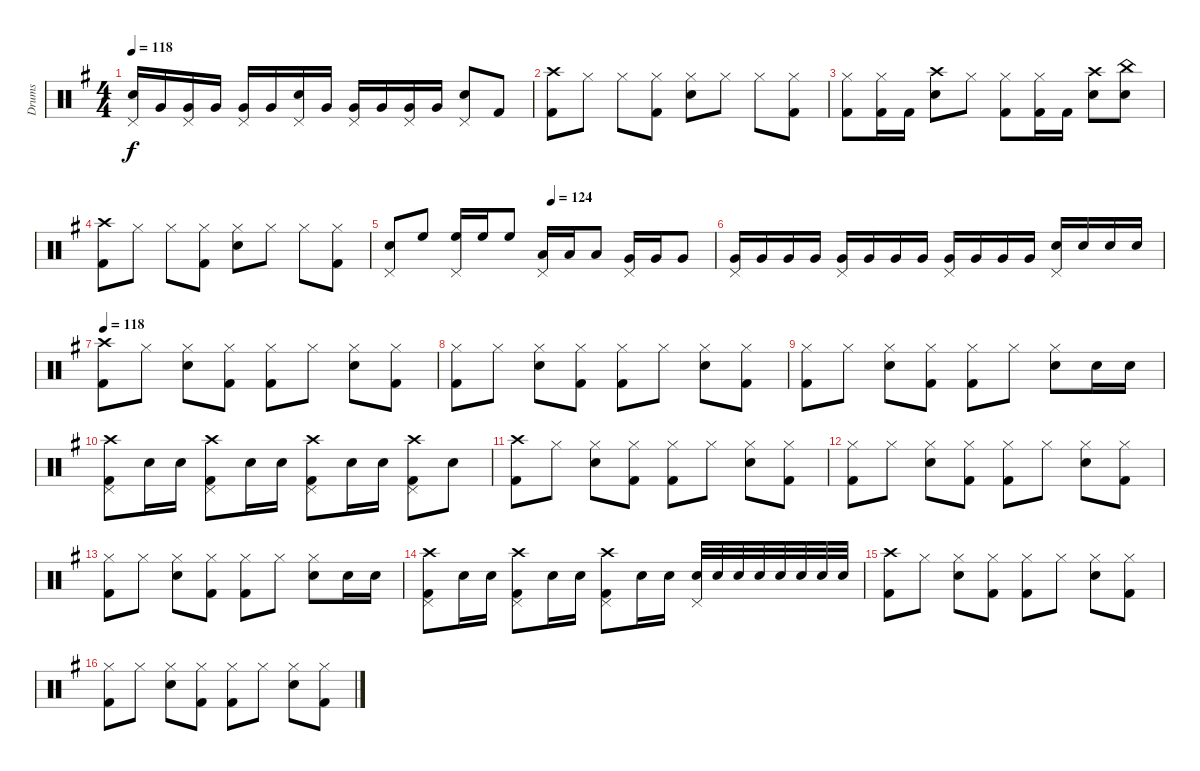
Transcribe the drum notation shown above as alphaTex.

\track ("Drums" "Drums") {instrument percussion}
\staff {score}
\articulation defaults
\ts (4 4)
\tempo 118
\clef neutral
\ks eminor
("Pedal Hi-Hat (hit)" "Electric Snare (hit)").16{dy f} "Very Low Tom (hit)".16 ("Pedal Hi-Hat (hit)" "Very Low Tom (hit)").16 "Very Low Tom (hit)".16 ("Pedal Hi-Hat (hit)" "Very Low Tom (hit)").16 "Very Low Tom (hit)".16 ("Pedal Hi-Hat (hit)" "Electric Snare (hit)").16 "Very Low Tom (hit)".16 ("Pedal Hi-Hat (hit)" "Very Low Tom (hit)").16 "Very Low Tom (hit)".16 ("Pedal Hi-Hat (hit)" "Very Low Tom (hit)").16 "Very Low Tom (hit)".16 ("Pedal Hi-Hat (hit)" "Electric Snare (hit)").8 "Kick (hit) 2".8 |
("Crash high (hit)" "Kick (hit) 2").8 "Hi-Hat (closed)".8 "Hi-Hat (closed)".8 ("Hi-Hat (closed)" "Kick (hit) 2").8 ("Hi-Hat (closed)" "Electric Snare (hit)").8 "Hi-Hat (closed)".8 "Hi-Hat (closed)".8 ("Hi-Hat (closed)" "Kick (hit) 2").8 |
("Hi-Hat (closed)" "Kick (hit) 2").8 ("Hi-Hat (closed)" "Kick (hit) 2").16 "Kick (hit) 2".16 ("Crash high (hit)" "Electric Snare (hit)").8 "Hi-Hat (closed)".8 ("Hi-Hat (closed)" "Kick (hit) 2").8 ("Hi-Hat (closed)" "Kick (hit) 2").16 "Kick (hit) 2".16 ("Crash high (hit)" "Electric Snare (hit)").8 ("China (hit)" "Electric Snare (hit)").8 |
("Crash high (hit)" "Kick (hit) 2").8 "Hi-Hat (closed)".8 "Hi-Hat (closed)".8 ("Hi-Hat (closed)" "Kick (hit) 2").8 ("Hi-Hat (closed)" "Electric Snare (hit)").8 "Hi-Hat (closed)".8 "Hi-Hat (closed)".8 ("Hi-Hat (closed)" "Kick (hit) 2").8 |
\tempo (124 0.5)
("Pedal Hi-Hat (hit)" "Electric Snare (hit)").8 "High Floor Tom (hit)".8 ("Pedal Hi-Hat (hit)" "High Floor Tom (hit)").16 "High Floor Tom (hit)".16 "High Floor Tom (hit)".8 ("Pedal Hi-Hat (hit)" "Low Tom (hit)").16 "Low Tom (hit)".16 "Low Tom (hit)".8 ("Pedal Hi-Hat (hit)" "Very Low Tom (hit)").16 "Very Low Tom (hit)".16 "Very Low Tom (hit)".8 |
("Pedal Hi-Hat (hit)" "Very Low Tom (hit)").16 "Very Low Tom (hit)".16 "Very Low Tom (hit)".16 "Very Low Tom (hit)".16 ("Pedal Hi-Hat (hit)" "Very Low Tom (hit)").16 "Very Low Tom (hit)".16 "Very Low Tom (hit)".16 "Very Low Tom (hit)".16 ("Pedal Hi-Hat (hit)" "Very Low Tom (hit)").16 "Very Low Tom (hit)".16 "Very Low Tom (hit)".16 "Very Low Tom (hit)".16 ("Pedal Hi-Hat (hit)" "Electric Snare (hit)").16 "Electric Snare (hit)".16 "Electric Snare (hit)".16 "Electric Snare (hit)".16 |
\tempo 118
("Crash high (hit)" "Kick (hit) 2").8 "Hi-Hat (closed)".8 ("Hi-Hat (closed)" "Electric Snare (hit)").8 ("Hi-Hat (closed)" "Kick (hit) 2").8 ("Hi-Hat (closed)" "Kick (hit) 2").8 "Hi-Hat (closed)".8 ("Hi-Hat (closed)" "Electric Snare (hit)").8 ("Hi-Hat (closed)" "Kick (hit) 2").8 |
("Hi-Hat (closed)" "Kick (hit) 2").8 "Hi-Hat (closed)".8 ("Hi-Hat (closed)" "Electric Snare (hit)").8 ("Hi-Hat (closed)" "Kick (hit) 2").8 ("Hi-Hat (closed)" "Kick (hit) 2").8 "Hi-Hat (closed)".8 ("Hi-Hat (closed)" "Electric Snare (hit)").8 ("Hi-Hat (closed)" "Kick (hit) 2").8 |
("Hi-Hat (closed)" "Kick (hit) 2").8 "Hi-Hat (closed)".8 ("Hi-Hat (closed)" "Electric Snare (hit)").8 ("Hi-Hat (closed)" "Kick (hit) 2").8 ("Hi-Hat (closed)" "Kick (hit) 2").8 "Hi-Hat (closed)".8 ("Hi-Hat (closed)" "Electric Snare (hit)").8 "Electric Snare (hit)".16 "Electric Snare (hit)".16 |
("Crash high (hit)" "Pedal Hi-Hat (hit)" "Kick (hit) 2").8 "Electric Snare (hit)".16 "Electric Snare (hit)".16 ("Crash high (hit)" "Pedal Hi-Hat (hit)" "Kick (hit) 2").8 "Electric Snare (hit)".16 "Electric Snare (hit)".16 ("Crash high (hit)" "Pedal Hi-Hat (hit)" "Kick (hit) 2").8 "Electric Snare (hit)".16 "Electric Snare (hit)".16 ("Crash high (hit)" "Pedal Hi-Hat (hit)" "Kick (hit) 2").8 "Electric Snare (hit)".8 |
("Crash high (hit)" "Kick (hit) 2").8 "Hi-Hat (closed)".8 ("Hi-Hat (closed)" "Electric Snare (hit)").8 ("Hi-Hat (closed)" "Kick (hit) 2").8 ("Hi-Hat (closed)" "Kick (hit) 2").8 "Hi-Hat (closed)".8 ("Hi-Hat (closed)" "Electric Snare (hit)").8 ("Hi-Hat (closed)" "Kick (hit) 2").8 |
("Hi-Hat (closed)" "Kick (hit) 2").8 "Hi-Hat (closed)".8 ("Hi-Hat (closed)" "Electric Snare (hit)").8 ("Hi-Hat (closed)" "Kick (hit) 2").8 ("Hi-Hat (closed)" "Kick (hit) 2").8 "Hi-Hat (closed)".8 ("Hi-Hat (closed)" "Electric Snare (hit)").8 ("Hi-Hat (closed)" "Kick (hit) 2").8 |
("Hi-Hat (closed)" "Kick (hit) 2").8 "Hi-Hat (closed)".8 ("Hi-Hat (closed)" "Electric Snare (hit)").8 ("Hi-Hat (closed)" "Kick (hit) 2").8 ("Hi-Hat (closed)" "Kick (hit) 2").8 "Hi-Hat (closed)".8 ("Hi-Hat (closed)" "Electric Snare (hit)").8 "Electric Snare (hit)".16 "Electric Snare (hit)".16 |
("Crash high (hit)" "Pedal Hi-Hat (hit)" "Kick (hit) 2").8 "Electric Snare (hit)".16 "Electric Snare (hit)".16 ("Crash high (hit)" "Pedal Hi-Hat (hit)" "Kick (hit) 2").8 "Electric Snare (hit)".16 "Electric Snare (hit)".16 ("Crash high (hit)" "Pedal Hi-Hat (hit)" "Kick (hit) 2").8 "Electric Snare (hit)".16 "Electric Snare (hit)".16 ("Pedal Hi-Hat (hit)" "Electric Snare (hit)").32 "Electric Snare (hit)".32 "Electric Snare (hit)".32 "Electric Snare (hit)".32 "Electric Snare (hit)".32 "Electric Snare (hit)".32 "Electric Snare (hit)".32 "Electric Snare (hit)".32 |
("Crash high (hit)" "Kick (hit) 2").8 "Hi-Hat (closed)".8 ("Hi-Hat (closed)" "Electric Snare (hit)").8 ("Hi-Hat (closed)" "Kick (hit) 2").8 ("Hi-Hat (closed)" "Kick (hit) 2").8 "Hi-Hat (closed)".8 ("Hi-Hat (closed)" "Electric Snare (hit)").8 ("Hi-Hat (closed)" "Kick (hit) 2").8 |
("Hi-Hat (closed)" "Kick (hit) 2").8 "Hi-Hat (closed)".8 ("Hi-Hat (closed)" "Electric Snare (hit)").8 ("Hi-Hat (closed)" "Kick (hit) 2").8 ("Hi-Hat (closed)" "Kick (hit) 2").8 "Hi-Hat (closed)".8 ("Hi-Hat (closed)" "Electric Snare (hit)").8 ("Hi-Hat (closed)" "Kick (hit) 2").8
